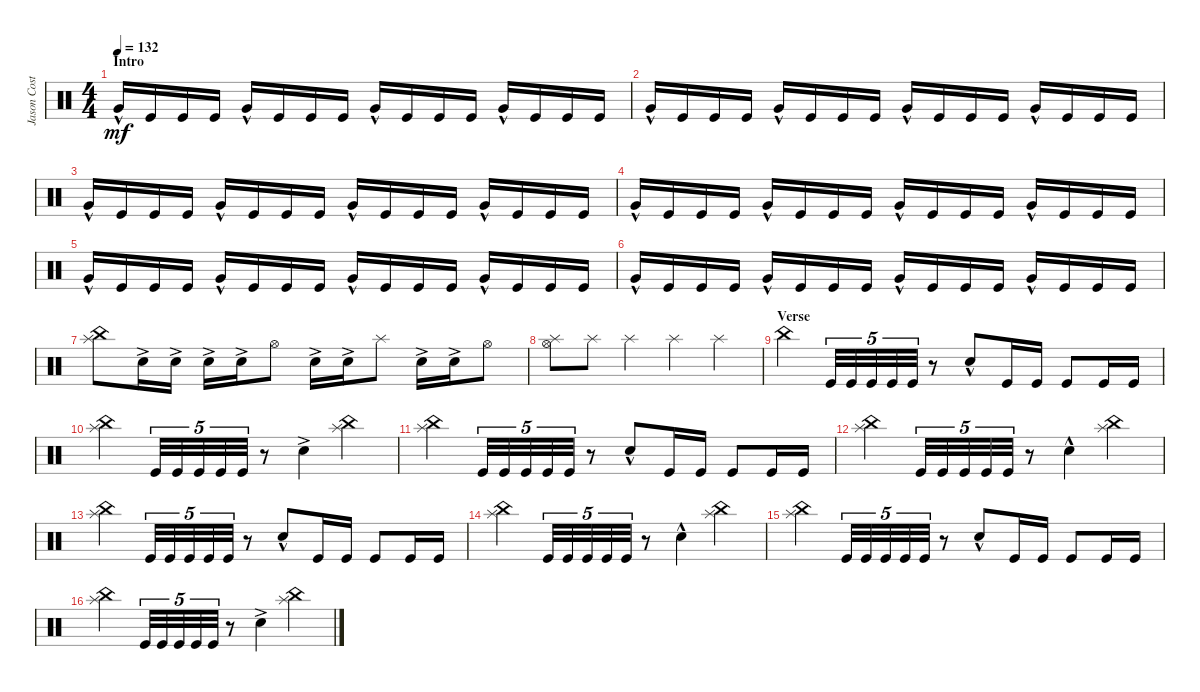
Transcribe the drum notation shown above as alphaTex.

\track ("Jason Costa" "Jason Cost") {instrument percussion}
\staff {score}
\articulation defaults
\ts (4 4)
\section ("" "Intro")
\tempo 132
\clef neutral
\ks c "Very Low Tom (hit)"{hac}.16{dy mf} "Kick (hit)".16 "Kick (hit)".16 "Kick (hit)".16 "Very Low Tom (hit)"{hac}.16 "Kick (hit)".16 "Kick (hit)".16 "Kick (hit)".16 "Very Low Tom (hit)"{hac}.16 "Kick (hit)".16 "Kick (hit)".16 "Kick (hit)".16 "Very Low Tom (hit)"{hac}.16 "Kick (hit)".16 "Kick (hit)".16 "Kick (hit)".16
|
"Very Low Tom (hit)"{hac}.16 "Kick (hit)".16 "Kick (hit)".16 "Kick (hit)".16 "Very Low Tom (hit)"{hac}.16 "Kick (hit)".16 "Kick (hit)".16 "Kick (hit)".16 "Very Low Tom (hit)"{hac}.16 "Kick (hit)".16 "Kick (hit)".16 "Kick (hit)".16 "Very Low Tom (hit)"{hac}.16 "Kick (hit)".16 "Kick (hit)".16 "Kick (hit)".16 |
"Very Low Tom (hit)"{hac}.16 "Kick (hit)".16 "Kick (hit)".16 "Kick (hit)".16 "Very Low Tom (hit)"{hac}.16 "Kick (hit)".16 "Kick (hit)".16 "Kick (hit)".16 "Very Low Tom (hit)"{hac}.16 "Kick (hit)".16 "Kick (hit)".16 "Kick (hit)".16 "Very Low Tom (hit)"{hac}.16 "Kick (hit)".16 "Kick (hit)".16 "Kick (hit)".16 |
"Very Low Tom (hit)"{hac}.16 "Kick (hit)".16 "Kick (hit)".16 "Kick (hit)".16 "Very Low Tom (hit)"{hac}.16 "Kick (hit)".16 "Kick (hit)".16 "Kick (hit)".16 "Very Low Tom (hit)"{hac}.16 "Kick (hit)".16 "Kick (hit)".16 "Kick (hit)".16 "Very Low Tom (hit)"{hac}.16 "Kick (hit)".16 "Kick (hit)".16 "Kick (hit)".16 |
"Very Low Tom (hit)"{hac}.16 "Kick (hit)".16 "Kick (hit)".16 "Kick (hit)".16 "Very Low Tom (hit)"{hac}.16 "Kick (hit)".16 "Kick (hit)".16 "Kick (hit)".16 "Very Low Tom (hit)"{hac}.16 "Kick (hit)".16 "Kick (hit)".16 "Kick (hit)".16 "Very Low Tom (hit)"{hac}.16 "Kick (hit)".16 "Kick (hit)".16 "Kick (hit)".16 |
"Very Low Tom (hit)"{hac}.16 "Kick (hit)".16 "Kick (hit)".16 "Kick (hit)".16 "Very Low Tom (hit)"{hac}.16 "Kick (hit)".16 "Kick (hit)".16 "Kick (hit)".16 "Very Low Tom (hit)"{hac}.16 "Kick (hit)".16 "Kick (hit)".16 "Kick (hit)".16 "Very Low Tom (hit)"{hac}.16 "Kick (hit)".16 "Kick (hit)".16 "Kick (hit)".16 |
("China (hit)" "Splash (hit)").8 "Snare (hit) 2"{ac}.16 "Snare (hit) 2"{ac}.16 "Snare (hit) 2"{ac}.16 "Snare (hit) 2"{ac}.16 "Hi-Hat (open)".8 "Snare (hit) 2"{ac}.16 "Snare (hit) 2"{ac}.16 "Splash (hit)".8 "Snare (hit) 2"{ac}.16 "Snare (hit) 2"{ac}.16 "Hi-Hat (open)".8 |
("Hi-Hat (open)" "Splash (hit)").8 "Splash (hit)".8 "Splash (hit)".4 "Splash (hit)".4 "Splash (hit)".4 |
\section ("" "Verse")
"China (hit)".4 "Kick (hit)".32{tu (5 4)} "Kick (hit)".32{tu (5 4)} "Kick (hit)".32{tu (5 4)} "Kick (hit)".32{tu (5 4)} "Kick (hit)".32{tu (5 4)} r.8 "Snare (hit) 2"{hac}.8 "Kick (hit)".16 "Kick (hit)".16 "Kick (hit)".8 "Kick (hit)".16 "Kick (hit)".16 |
("China (hit)" "Splash (hit)").4 "Kick (hit)".32{tu (5 4)} "Kick (hit)".32{tu (5 4)} "Kick (hit)".32{tu (5 4)} "Kick (hit)".32{tu (5 4)} "Kick (hit)".32{tu (5 4)} r.8 "Snare (hit) 2"{ac}.4 ("China (hit)" "Splash (hit)").4 |
("China (hit)" "Splash (hit)").4 "Kick (hit)".32{tu (5 4)} "Kick (hit)".32{tu (5 4)} "Kick (hit)".32{tu (5 4)} "Kick (hit)".32{tu (5 4)} "Kick (hit)".32{tu (5 4)} r.8 "Snare (hit) 2"{hac}.8 "Kick (hit)".16 "Kick (hit)".16 "Kick (hit)".8 "Kick (hit)".16 "Kick (hit)".16 |
("China (hit)" "Splash (hit)").4 "Kick (hit)".32{tu (5 4)} "Kick (hit)".32{tu (5 4)} "Kick (hit)".32{tu (5 4)} "Kick (hit)".32{tu (5 4)} "Kick (hit)".32{tu (5 4)} r.8 "Snare (hit) 2"{hac}.4 ("Splash (hit)" "China (hit)").4 |
("China (hit)" "Splash (hit)").4 "Kick (hit)".32{tu (5 4)} "Kick (hit)".32{tu (5 4)} "Kick (hit)".32{tu (5 4)} "Kick (hit)".32{tu (5 4)} "Kick (hit)".32{tu (5 4)} r.8 "Snare (hit) 2"{hac}.8 "Kick (hit)".16 "Kick (hit)".16 "Kick (hit)".8 "Kick (hit)".16 "Kick (hit)".16 |
("China (hit)" "Splash (hit)").4 "Kick (hit)".32{tu (5 4)} "Kick (hit)".32{tu (5 4)} "Kick (hit)".32{tu (5 4)} "Kick (hit)".32{tu (5 4)} "Kick (hit)".32{tu (5 4)} r.8 "Snare (hit) 2"{hac}.4 ("China (hit)" "Splash (hit)").4 |
("China (hit)" "Splash (hit)").4 "Kick (hit)".32{tu (5 4)} "Kick (hit)".32{tu (5 4)} "Kick (hit)".32{tu (5 4)} "Kick (hit)".32{tu (5 4)} "Kick (hit)".32{tu (5 4)} r.8 "Snare (hit) 2"{hac}.8 "Kick (hit)".16 "Kick (hit)".16 "Kick (hit)".8 "Kick (hit)".16 "Kick (hit)".16 |
("China (hit)" "Splash (hit)").4 "Kick (hit)".32{tu (5 4)} "Kick (hit)".32{tu (5 4)} "Kick (hit)".32{tu (5 4)} "Kick (hit)".32{tu (5 4)} "Kick (hit)".32{tu (5 4)} r.8 "Snare (hit) 2"{ac}.4 ("China (hit)" "Splash (hit)").4
